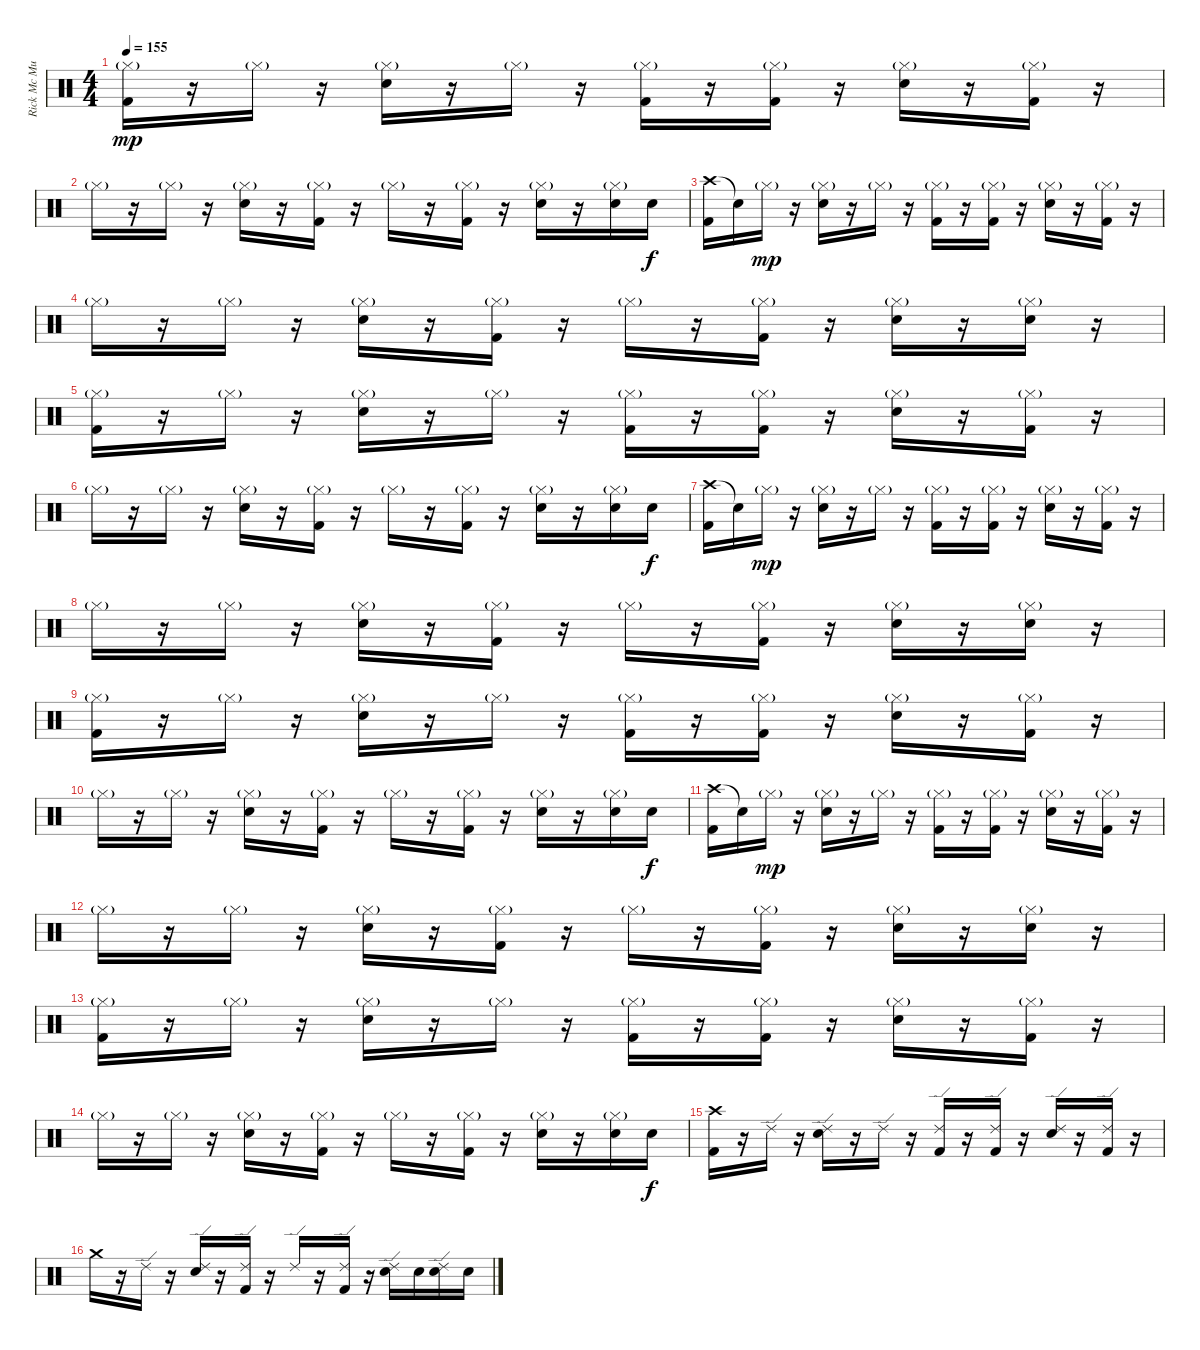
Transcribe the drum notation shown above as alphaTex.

\track ("Rick Mc Murray" "Rick Mc Mu") {instrument percussion}
\staff {score}
\articulation defaults
\ts (4 4)
\tempo 155
\clef neutral
\ks c
("Hi-Hat (closed)"{g} "Kick (hit) 2").16{dy mp} r.16 "Hi-Hat (closed)"{g}.16 r.16 ("Hi-Hat (closed)"{g} "Electric Snare (hit)").16 r.16 "Hi-Hat (closed)"{g}.16 r.16 ("Hi-Hat (closed)"{g} "Kick (hit) 2").16 r.16 ("Hi-Hat (closed)"{g} "Kick (hit) 2").16 r.16 ("Hi-Hat (closed)"{g} "Electric Snare (hit)").16 r.16 ("Hi-Hat (closed)"{g} "Kick (hit) 2").16 r.16 |
"Hi-Hat (closed)"{g}.16 r.16 "Hi-Hat (closed)"{g}.16 r.16 ("Hi-Hat (closed)"{g} "Electric Snare (hit)").16 r.16 ("Hi-Hat (closed)"{g} "Kick (hit) 2").16 r.16 "Hi-Hat (closed)"{g}.16 r.16 ("Hi-Hat (closed)"{g} "Kick (hit) 2").16 r.16 ("Hi-Hat (closed)"{g} "Electric Snare (hit)").16 r.16 ("Hi-Hat (closed)"{g} "Electric Snare (hit)").16 "Electric Snare (hit)".16{dy f} |
("Crash high (hit)" "Kick (hit) 2").16 "Snare (hit)"{t}.16 "Hi-Hat (closed)"{g}.16{dy mp} r.16 ("Hi-Hat (closed)"{g} "Electric Snare (hit)").16 r.16 "Hi-Hat (closed)"{g}.16 r.16 ("Hi-Hat (closed)"{g} "Kick (hit) 2").16 r.16 ("Hi-Hat (closed)"{g} "Kick (hit) 2").16 r.16 ("Hi-Hat (closed)"{g} "Electric Snare (hit)").16 r.16 ("Hi-Hat (closed)"{g} "Kick (hit) 2").16 r.16 |
"Hi-Hat (closed)"{g}.16 r.16 "Hi-Hat (closed)"{g}.16 r.16 ("Hi-Hat (closed)"{g} "Electric Snare (hit)").16 r.16 ("Hi-Hat (closed)"{g} "Kick (hit) 2").16 r.16 "Hi-Hat (closed)"{g}.16 r.16 ("Hi-Hat (closed)"{g} "Kick (hit) 2").16 r.16 ("Hi-Hat (closed)"{g} "Electric Snare (hit)").16 r.16 ("Hi-Hat (closed)"{g} "Electric Snare (hit)").16 r.16 |
("Hi-Hat (closed)"{g} "Kick (hit) 2").16 r.16 "Hi-Hat (closed)"{g}.16 r.16 ("Hi-Hat (closed)"{g} "Electric Snare (hit)").16 r.16 "Hi-Hat (closed)"{g}.16 r.16 ("Hi-Hat (closed)"{g} "Kick (hit) 2").16 r.16 ("Hi-Hat (closed)"{g} "Kick (hit) 2").16 r.16 ("Hi-Hat (closed)"{g} "Electric Snare (hit)").16 r.16 ("Hi-Hat (closed)"{g} "Kick (hit) 2").16 r.16 |
"Hi-Hat (closed)"{g}.16 r.16 "Hi-Hat (closed)"{g}.16 r.16 ("Hi-Hat (closed)"{g} "Electric Snare (hit)").16 r.16 ("Hi-Hat (closed)"{g} "Kick (hit) 2").16 r.16 "Hi-Hat (closed)"{g}.16 r.16 ("Hi-Hat (closed)"{g} "Kick (hit) 2").16 r.16 ("Hi-Hat (closed)"{g} "Electric Snare (hit)").16 r.16 ("Hi-Hat (closed)"{g} "Electric Snare (hit)").16 "Electric Snare (hit)".16{dy f} |
("Crash high (hit)" "Kick (hit) 2").16 "Snare (hit)"{t}.16 "Hi-Hat (closed)"{g}.16{dy mp} r.16 ("Hi-Hat (closed)"{g} "Electric Snare (hit)").16 r.16 "Hi-Hat (closed)"{g}.16 r.16 ("Hi-Hat (closed)"{g} "Kick (hit) 2").16 r.16 ("Hi-Hat (closed)"{g} "Kick (hit) 2").16 r.16 ("Hi-Hat (closed)"{g} "Electric Snare (hit)").16 r.16 ("Hi-Hat (closed)"{g} "Kick (hit) 2").16 r.16 |
"Hi-Hat (closed)"{g}.16 r.16 "Hi-Hat (closed)"{g}.16 r.16 ("Hi-Hat (closed)"{g} "Electric Snare (hit)").16 r.16 ("Hi-Hat (closed)"{g} "Kick (hit) 2").16 r.16 "Hi-Hat (closed)"{g}.16 r.16 ("Hi-Hat (closed)"{g} "Kick (hit) 2").16 r.16 ("Hi-Hat (closed)"{g} "Electric Snare (hit)").16 r.16 ("Hi-Hat (closed)"{g} "Electric Snare (hit)").16 r.16 |
("Hi-Hat (closed)"{g} "Kick (hit) 2").16 r.16 "Hi-Hat (closed)"{g}.16 r.16 ("Hi-Hat (closed)"{g} "Electric Snare (hit)").16 r.16 "Hi-Hat (closed)"{g}.16 r.16 ("Hi-Hat (closed)"{g} "Kick (hit) 2").16 r.16 ("Hi-Hat (closed)"{g} "Kick (hit) 2").16 r.16 ("Hi-Hat (closed)"{g} "Electric Snare (hit)").16 r.16 ("Hi-Hat (closed)"{g} "Kick (hit) 2").16 r.16 |
"Hi-Hat (closed)"{g}.16 r.16 "Hi-Hat (closed)"{g}.16 r.16 ("Hi-Hat (closed)"{g} "Electric Snare (hit)").16 r.16 ("Hi-Hat (closed)"{g} "Kick (hit) 2").16 r.16 "Hi-Hat (closed)"{g}.16 r.16 ("Hi-Hat (closed)"{g} "Kick (hit) 2").16 r.16 ("Hi-Hat (closed)"{g} "Electric Snare (hit)").16 r.16 ("Hi-Hat (closed)"{g} "Electric Snare (hit)").16 "Electric Snare (hit)".16{dy f} |
("Crash high (hit)" "Kick (hit) 2").16 "Snare (hit)"{t}.16 "Hi-Hat (closed)"{g}.16{dy mp} r.16 ("Hi-Hat (closed)"{g} "Electric Snare (hit)").16 r.16 "Hi-Hat (closed)"{g}.16 r.16 ("Hi-Hat (closed)"{g} "Kick (hit) 2").16 r.16 ("Hi-Hat (closed)"{g} "Kick (hit) 2").16 r.16 ("Hi-Hat (closed)"{g} "Electric Snare (hit)").16 r.16 ("Hi-Hat (closed)"{g} "Kick (hit) 2").16 r.16 |
"Hi-Hat (closed)"{g}.16 r.16 "Hi-Hat (closed)"{g}.16 r.16 ("Hi-Hat (closed)"{g} "Electric Snare (hit)").16 r.16 ("Hi-Hat (closed)"{g} "Kick (hit) 2").16 r.16 "Hi-Hat (closed)"{g}.16 r.16 ("Hi-Hat (closed)"{g} "Kick (hit) 2").16 r.16 ("Hi-Hat (closed)"{g} "Electric Snare (hit)").16 r.16 ("Hi-Hat (closed)"{g} "Electric Snare (hit)").16 r.16 |
("Hi-Hat (closed)"{g} "Kick (hit) 2").16 r.16 "Hi-Hat (closed)"{g}.16 r.16 ("Hi-Hat (closed)"{g} "Electric Snare (hit)").16 r.16 "Hi-Hat (closed)"{g}.16 r.16 ("Hi-Hat (closed)"{g} "Kick (hit) 2").16 r.16 ("Hi-Hat (closed)"{g} "Kick (hit) 2").16 r.16 ("Hi-Hat (closed)"{g} "Electric Snare (hit)").16 r.16 ("Hi-Hat (closed)"{g} "Kick (hit) 2").16 r.16 |
"Hi-Hat (closed)"{g}.16 r.16 "Hi-Hat (closed)"{g}.16 r.16 ("Hi-Hat (closed)"{g} "Electric Snare (hit)").16 r.16 ("Hi-Hat (closed)"{g} "Kick (hit) 2").16 r.16 "Hi-Hat (closed)"{g}.16 r.16 ("Hi-Hat (closed)"{g} "Kick (hit) 2").16 r.16 ("Hi-Hat (closed)"{g} "Electric Snare (hit)").16 r.16 ("Hi-Hat (closed)"{g} "Electric Snare (hit)").16 "Electric Snare (hit)".16{dy f} |
("Crash high (hit)" "Kick (hit) 2").16 r.16 "Ride (edge) 2".16 r.16 ("Ride (edge) 2" "Electric Snare (hit)").16 r.16 "Ride (edge) 2".16 r.16 ("Ride (edge) 2" "Kick (hit) 2").16 r.16 ("Ride (edge) 2" "Kick (hit) 2").16 r.16 ("Ride (edge) 2" "Electric Snare (hit)").16 r.16 ("Ride (edge) 2" "Kick (hit) 2").16 r.16 |
"Crash medium (hit)".16 r.16 "Ride (edge) 2".16 r.16 ("Ride (edge) 2" "Electric Snare (hit)").16 r.16 ("Ride (edge) 2" "Kick (hit) 2").16 r.16 "Ride (edge) 2".16 r.16 ("Ride (edge) 2" "Kick (hit) 2").16 r.16 ("Ride (edge) 2" "Electric Snare (hit)").16 "Electric Snare (hit)".16 ("Ride (edge) 2" "Electric Snare (hit)").16 "Electric Snare (hit)".16
